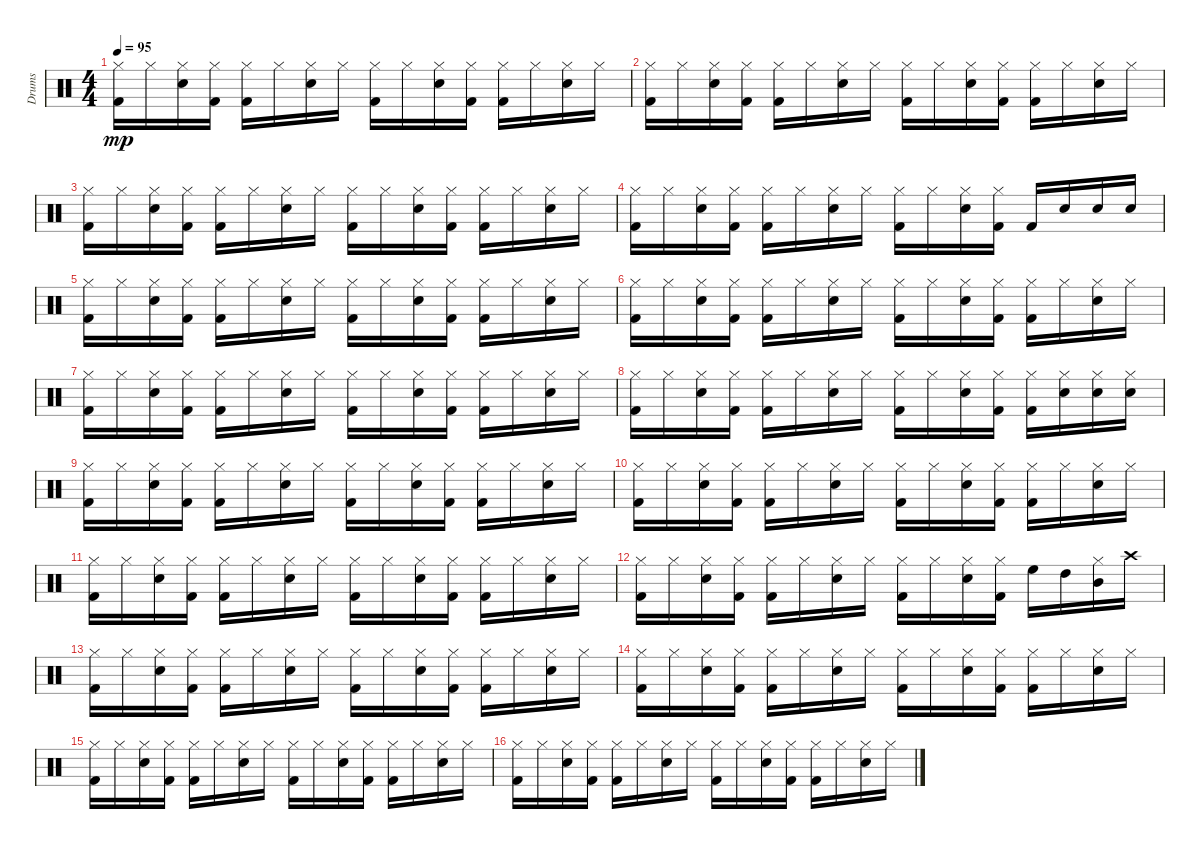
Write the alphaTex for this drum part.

\track ("Drums" "Drums") {instrument percussion}
\staff {score}
\articulation defaults
\ts (4 4)
\tempo 95
\clef neutral
\ks c
("Kick (hit) 2" "Hi-Hat (closed)").16{dy mp} "Hi-Hat (closed)".16 ("Snare (hit) 2" "Hi-Hat (closed)").16 ("Kick (hit) 2" "Hi-Hat (closed)").16 ("Kick (hit) 2" "Hi-Hat (closed)").16 "Hi-Hat (closed)".16 ("Snare (hit) 2" "Hi-Hat (closed)").16 "Hi-Hat (closed)".16 ("Kick (hit) 2" "Hi-Hat (closed)").16 "Hi-Hat (closed)".16 ("Snare (hit) 2" "Hi-Hat (closed)").16 ("Kick (hit) 2" "Hi-Hat (closed)").16 ("Kick (hit) 2" "Hi-Hat (closed)").16 "Hi-Hat (closed)".16 ("Snare (hit) 2" "Hi-Hat (closed)").16 "Hi-Hat (closed)".16 |
("Kick (hit) 2" "Hi-Hat (closed)").16 "Hi-Hat (closed)".16 ("Snare (hit) 2" "Hi-Hat (closed)").16 ("Kick (hit) 2" "Hi-Hat (closed)").16 ("Kick (hit) 2" "Hi-Hat (closed)").16 "Hi-Hat (closed)".16 ("Snare (hit) 2" "Hi-Hat (closed)").16 "Hi-Hat (closed)".16 ("Kick (hit) 2" "Hi-Hat (closed)").16 "Hi-Hat (closed)".16 ("Snare (hit) 2" "Hi-Hat (closed)").16 ("Kick (hit) 2" "Hi-Hat (closed)").16 ("Kick (hit) 2" "Hi-Hat (closed)").16 "Hi-Hat (closed)".16 ("Snare (hit) 2" "Hi-Hat (closed)").16 "Hi-Hat (closed)".16 |
("Kick (hit) 2" "Hi-Hat (closed)").16 "Hi-Hat (closed)".16 ("Snare (hit) 2" "Hi-Hat (closed)").16 ("Kick (hit) 2" "Hi-Hat (closed)").16 ("Kick (hit) 2" "Hi-Hat (closed)").16 "Hi-Hat (closed)".16 ("Snare (hit) 2" "Hi-Hat (closed)").16 "Hi-Hat (closed)".16 ("Kick (hit) 2" "Hi-Hat (closed)").16 "Hi-Hat (closed)".16 ("Snare (hit) 2" "Hi-Hat (closed)").16 ("Kick (hit) 2" "Hi-Hat (closed)").16 ("Kick (hit) 2" "Hi-Hat (closed)").16 "Hi-Hat (closed)".16 ("Snare (hit) 2" "Hi-Hat (closed)").16 "Hi-Hat (closed)".16 |
("Kick (hit) 2" "Hi-Hat (closed)").16 "Hi-Hat (closed)".16 ("Snare (hit) 2" "Hi-Hat (closed)").16 ("Kick (hit) 2" "Hi-Hat (closed)").16 ("Kick (hit) 2" "Hi-Hat (closed)").16 "Hi-Hat (closed)".16 ("Snare (hit) 2" "Hi-Hat (closed)").16 "Hi-Hat (closed)".16 ("Kick (hit) 2" "Hi-Hat (closed)").16 "Hi-Hat (closed)".16 ("Snare (hit) 2" "Hi-Hat (closed)").16 ("Kick (hit) 2" "Hi-Hat (closed)").16 "Kick (hit) 2".16 "Snare (hit) 2".16 "Electric Snare (hit)".16 "Electric Snare (hit)".16 |
("Kick (hit) 2" "Hi-Hat (closed)").16 "Hi-Hat (closed)".16 ("Snare (hit) 2" "Hi-Hat (closed)").16 ("Kick (hit) 2" "Hi-Hat (closed)").16 ("Kick (hit) 2" "Hi-Hat (closed)").16 "Hi-Hat (closed)".16 ("Snare (hit) 2" "Hi-Hat (closed)").16 "Hi-Hat (closed)".16 ("Kick (hit) 2" "Hi-Hat (closed)").16 "Hi-Hat (closed)".16 ("Snare (hit) 2" "Hi-Hat (closed)").16 ("Kick (hit) 2" "Hi-Hat (closed)").16 ("Kick (hit) 2" "Hi-Hat (closed)").16 "Hi-Hat (closed)".16 ("Snare (hit) 2" "Hi-Hat (closed)").16 "Hi-Hat (closed)".16 |
("Kick (hit) 2" "Hi-Hat (closed)").16 "Hi-Hat (closed)".16 ("Snare (hit) 2" "Hi-Hat (closed)").16 ("Kick (hit) 2" "Hi-Hat (closed)").16 ("Kick (hit) 2" "Hi-Hat (closed)").16 "Hi-Hat (closed)".16 ("Snare (hit) 2" "Hi-Hat (closed)").16 "Hi-Hat (closed)".16 ("Kick (hit) 2" "Hi-Hat (closed)").16 "Hi-Hat (closed)".16 ("Snare (hit) 2" "Hi-Hat (closed)").16 ("Kick (hit) 2" "Hi-Hat (closed)").16 ("Kick (hit) 2" "Hi-Hat (closed)").16 "Hi-Hat (closed)".16 ("Snare (hit) 2" "Hi-Hat (closed)").16 "Hi-Hat (closed)".16 |
("Kick (hit) 2" "Hi-Hat (closed)").16 "Hi-Hat (closed)".16 ("Snare (hit) 2" "Hi-Hat (closed)").16 ("Kick (hit) 2" "Hi-Hat (closed)").16 ("Kick (hit) 2" "Hi-Hat (closed)").16 "Hi-Hat (closed)".16 ("Snare (hit) 2" "Hi-Hat (closed)").16 "Hi-Hat (closed)".16 ("Kick (hit) 2" "Hi-Hat (closed)").16 "Hi-Hat (closed)".16 ("Snare (hit) 2" "Hi-Hat (closed)").16 ("Kick (hit) 2" "Hi-Hat (closed)").16 ("Kick (hit) 2" "Hi-Hat (closed)").16 "Hi-Hat (closed)".16 ("Snare (hit) 2" "Hi-Hat (closed)").16 "Hi-Hat (closed)".16 |
("Kick (hit) 2" "Hi-Hat (closed)").16 "Hi-Hat (closed)".16 ("Snare (hit) 2" "Hi-Hat (closed)").16 ("Kick (hit) 2" "Hi-Hat (closed)").16 ("Kick (hit) 2" "Hi-Hat (closed)").16 "Hi-Hat (closed)".16 ("Snare (hit) 2" "Hi-Hat (closed)").16 "Hi-Hat (closed)".16 ("Kick (hit) 2" "Hi-Hat (closed)").16 "Hi-Hat (closed)".16 ("Snare (hit) 2" "Hi-Hat (closed)").16 ("Kick (hit) 2" "Hi-Hat (closed)").16 ("Kick (hit) 2" "Hi-Hat (closed)").16 ("Electric Snare (hit)" "Hi-Hat (closed)").16 ("Snare (hit) 2" "Hi-Hat (closed)").16 ("Electric Snare (hit)" "Hi-Hat (closed)").16 |
("Kick (hit) 2" "Hi-Hat (closed)").16 "Hi-Hat (closed)".16 ("Snare (hit) 2" "Hi-Hat (closed)").16 ("Kick (hit) 2" "Hi-Hat (closed)").16 ("Kick (hit) 2" "Hi-Hat (closed)").16 "Hi-Hat (closed)".16 ("Snare (hit) 2" "Hi-Hat (closed)").16 "Hi-Hat (closed)".16 ("Kick (hit) 2" "Hi-Hat (closed)").16 "Hi-Hat (closed)".16 ("Snare (hit) 2" "Hi-Hat (closed)").16 ("Kick (hit) 2" "Hi-Hat (closed)").16 ("Kick (hit) 2" "Hi-Hat (closed)").16 "Hi-Hat (closed)".16 ("Snare (hit) 2" "Hi-Hat (closed)").16 "Hi-Hat (closed)".16 |
("Kick (hit) 2" "Hi-Hat (closed)").16 "Hi-Hat (closed)".16 ("Snare (hit) 2" "Hi-Hat (closed)").16 ("Kick (hit) 2" "Hi-Hat (closed)").16 ("Kick (hit) 2" "Hi-Hat (closed)").16 "Hi-Hat (closed)".16 ("Snare (hit) 2" "Hi-Hat (closed)").16 "Hi-Hat (closed)".16 ("Kick (hit) 2" "Hi-Hat (closed)").16 "Hi-Hat (closed)".16 ("Snare (hit) 2" "Hi-Hat (closed)").16 ("Kick (hit) 2" "Hi-Hat (closed)").16 ("Kick (hit) 2" "Hi-Hat (closed)").16 "Hi-Hat (closed)".16 ("Snare (hit) 2" "Hi-Hat (closed)").16 "Hi-Hat (closed)".16 |
("Kick (hit) 2" "Hi-Hat (closed)").16 "Hi-Hat (closed)".16 ("Snare (hit) 2" "Hi-Hat (closed)").16 ("Kick (hit) 2" "Hi-Hat (closed)").16 ("Kick (hit) 2" "Hi-Hat (closed)").16 "Hi-Hat (closed)".16 ("Snare (hit) 2" "Hi-Hat (closed)").16 "Hi-Hat (closed)".16 ("Kick (hit) 2" "Hi-Hat (closed)").16 "Hi-Hat (closed)".16 ("Snare (hit) 2" "Hi-Hat (closed)").16 ("Kick (hit) 2" "Hi-Hat (closed)").16 ("Kick (hit) 2" "Hi-Hat (closed)").16 "Hi-Hat (closed)".16 ("Snare (hit) 2" "Hi-Hat (closed)").16 "Hi-Hat (closed)".16 |
("Kick (hit) 2" "Hi-Hat (closed)").16 "Hi-Hat (closed)".16 ("Snare (hit) 2" "Hi-Hat (closed)").16 ("Kick (hit) 2" "Hi-Hat (closed)").16 ("Kick (hit) 2" "Hi-Hat (closed)").16 "Hi-Hat (closed)".16 ("Snare (hit) 2" "Hi-Hat (closed)").16 "Hi-Hat (closed)".16 ("Kick (hit) 2" "Hi-Hat (closed)").16 "Hi-Hat (closed)".16 ("Snare (hit) 2" "Hi-Hat (closed)").16 ("Kick (hit) 2" "Hi-Hat (closed)").16 "High Floor Tom (hit)".16 "High Tom (hit)".16 ("Hi-Hat (closed)" "Mid Tom (hit)").16 "Crash high (hit)".16 |
("Kick (hit) 2" "Hi-Hat (closed)").16 "Hi-Hat (closed)".16 ("Snare (hit) 2" "Hi-Hat (closed)").16 ("Kick (hit) 2" "Hi-Hat (closed)").16 ("Kick (hit) 2" "Hi-Hat (closed)").16 "Hi-Hat (closed)".16 ("Snare (hit) 2" "Hi-Hat (closed)").16 "Hi-Hat (closed)".16 ("Kick (hit) 2" "Hi-Hat (closed)").16 "Hi-Hat (closed)".16 ("Snare (hit) 2" "Hi-Hat (closed)").16 ("Kick (hit) 2" "Hi-Hat (closed)").16 ("Kick (hit) 2" "Hi-Hat (closed)").16 "Hi-Hat (closed)".16 ("Snare (hit) 2" "Hi-Hat (closed)").16 "Hi-Hat (closed)".16 |
("Kick (hit) 2" "Hi-Hat (closed)").16 "Hi-Hat (closed)".16 ("Snare (hit) 2" "Hi-Hat (closed)").16 ("Kick (hit) 2" "Hi-Hat (closed)").16 ("Kick (hit) 2" "Hi-Hat (closed)").16 "Hi-Hat (closed)".16 ("Snare (hit) 2" "Hi-Hat (closed)").16 "Hi-Hat (closed)".16 ("Kick (hit) 2" "Hi-Hat (closed)").16 "Hi-Hat (closed)".16 ("Snare (hit) 2" "Hi-Hat (closed)").16 ("Kick (hit) 2" "Hi-Hat (closed)").16 ("Kick (hit) 2" "Hi-Hat (closed)").16 "Hi-Hat (closed)".16 ("Snare (hit) 2" "Hi-Hat (closed)").16 "Hi-Hat (closed)".16 |
("Kick (hit) 2" "Hi-Hat (closed)").16 "Hi-Hat (closed)".16 ("Snare (hit) 2" "Hi-Hat (closed)").16 ("Kick (hit) 2" "Hi-Hat (closed)").16 ("Kick (hit) 2" "Hi-Hat (closed)").16 "Hi-Hat (closed)".16 ("Snare (hit) 2" "Hi-Hat (closed)").16 "Hi-Hat (closed)".16 ("Kick (hit) 2" "Hi-Hat (closed)").16 "Hi-Hat (closed)".16 ("Snare (hit) 2" "Hi-Hat (closed)").16 ("Kick (hit) 2" "Hi-Hat (closed)").16 ("Kick (hit) 2" "Hi-Hat (closed)").16 "Hi-Hat (closed)".16 ("Snare (hit) 2" "Hi-Hat (closed)").16 "Hi-Hat (closed)".16 |
("Kick (hit) 2" "Hi-Hat (closed)").16 "Hi-Hat (closed)".16 ("Snare (hit) 2" "Hi-Hat (closed)").16 ("Kick (hit) 2" "Hi-Hat (closed)").16 ("Kick (hit) 2" "Hi-Hat (closed)").16 "Hi-Hat (closed)".16 ("Snare (hit) 2" "Hi-Hat (closed)").16 "Hi-Hat (closed)".16 ("Kick (hit) 2" "Hi-Hat (closed)").16 "Hi-Hat (closed)".16 ("Snare (hit) 2" "Hi-Hat (closed)").16 ("Kick (hit) 2" "Hi-Hat (closed)").16 ("Kick (hit) 2" "Hi-Hat (closed)").16 "Hi-Hat (closed)".16 ("Snare (hit) 2" "Hi-Hat (closed)").16 "Hi-Hat (closed)".16
